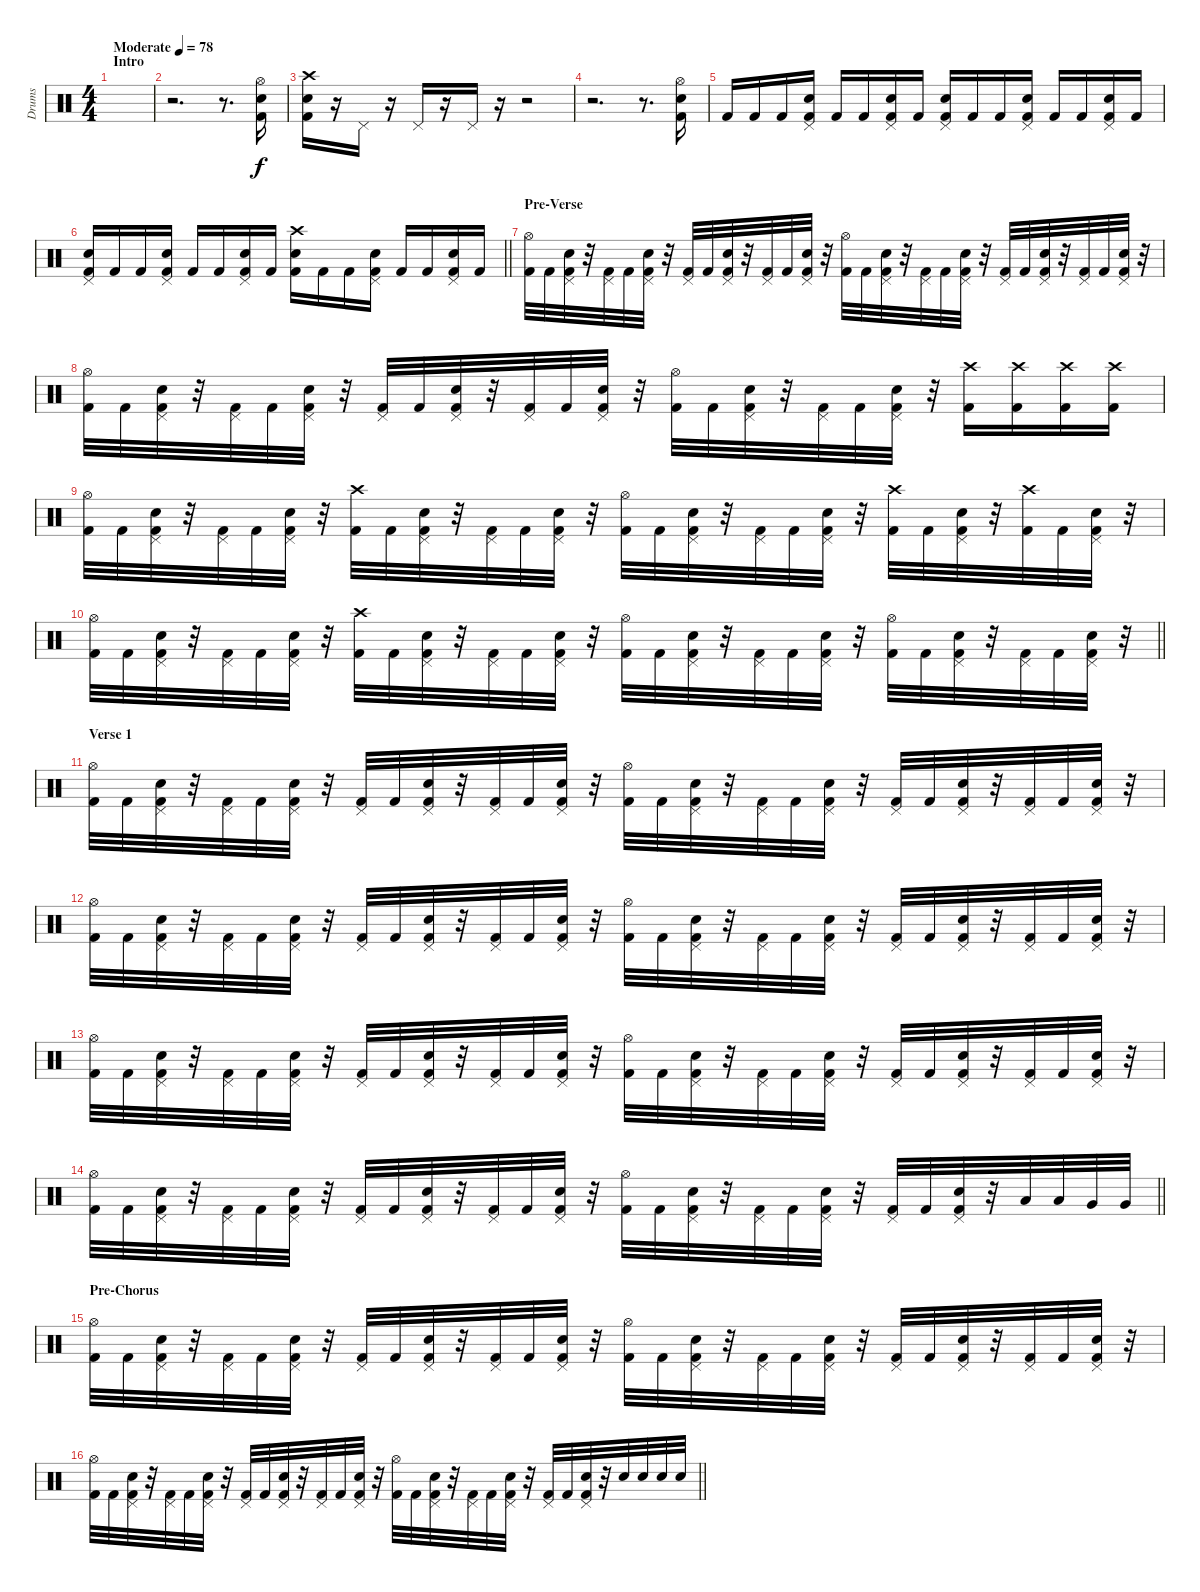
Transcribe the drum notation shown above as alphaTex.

\track ("Drums" "Drums") {instrument percussion}
\staff {score}
\articulation defaults
\ts (4 4)
\section ("" "Intro")
\tempo (78 "Moderate")
\clef neutral
\ks c
|
r.2{d} r.8{d} ("Hi-Hat (open)" "Snare (hit) 2" "Kick (hit) 2").16 |
("Crash high (hit)" "Snare (hit) 2" "Kick (hit) 2").16 r.16 "Pedal Hi-Hat (hit)".16 r.16 "Pedal Hi-Hat (hit)".16 r.16 "Pedal Hi-Hat (hit)".16 r.16 r.2 |
r.2{d} r.8{d} ("Hi-Hat (open)" "Snare (hit) 2" "Kick (hit) 2").16 |
"Kick (hit) 2".16 "Kick (hit) 2".16 "Kick (hit) 2".16 ("Pedal Hi-Hat (hit)" "Snare (hit) 2" "Kick (hit) 2").16 "Kick (hit) 2".16 "Kick (hit) 2".16 ("Pedal Hi-Hat (hit)" "Snare (hit) 2" "Kick (hit) 2").16 "Kick (hit) 2".16 ("Pedal Hi-Hat (hit)" "Snare (hit) 2" "Kick (hit) 2").16 "Kick (hit) 2".16 "Kick (hit) 2".16 ("Pedal Hi-Hat (hit)" "Snare (hit) 2" "Kick (hit) 2").16 "Kick (hit) 2".16 "Kick (hit) 2".16 ("Pedal Hi-Hat (hit)" "Snare (hit) 2" "Kick (hit) 2").16 "Kick (hit) 2".16 |
\barLineRight lightlight
("Pedal Hi-Hat (hit)" "Snare (hit) 2" "Kick (hit) 2").16 "Kick (hit) 2".16 "Kick (hit) 2".16 ("Pedal Hi-Hat (hit)" "Snare (hit) 2" "Kick (hit) 2").16 "Kick (hit) 2".16 "Kick (hit) 2".16 ("Pedal Hi-Hat (hit)" "Snare (hit) 2" "Kick (hit) 2").16 "Kick (hit) 2".16 ("Crash high (hit)" "Snare (hit) 2" "Kick (hit) 2").16 "Kick (hit) 2".16 "Kick (hit) 2".16 ("Pedal Hi-Hat (hit)" "Snare (hit) 2" "Kick (hit) 2").16 "Kick (hit) 2".16 "Kick (hit) 2".16 ("Pedal Hi-Hat (hit)" "Snare (hit) 2" "Kick (hit) 2").16 "Kick (hit) 2".16 |
\section ("" "Pre-Verse")
("Hi-Hat (open)" "Kick (hit) 2").32 "Kick (hit) 2".32 ("Pedal Hi-Hat (hit)" "Snare (hit) 2" "Kick (hit) 2").32 r.32 ("Pedal Hi-Hat (hit)" "Kick (hit) 2").32 "Kick (hit) 2".32 ("Pedal Hi-Hat (hit)" "Snare (hit) 2" "Kick (hit) 2").32 r.32 ("Pedal Hi-Hat (hit)" "Kick (hit) 2").32 "Kick (hit) 2".32 ("Pedal Hi-Hat (hit)" "Snare (hit) 2" "Kick (hit) 2").32 r.32 ("Pedal Hi-Hat (hit)" "Kick (hit) 2").32 "Kick (hit) 2".32 ("Pedal Hi-Hat (hit)" "Snare (hit) 2" "Kick (hit) 2").32 r.32 ("Hi-Hat (open)" "Kick (hit) 2").32 "Kick (hit) 2".32 ("Pedal Hi-Hat (hit)" "Snare (hit) 2" "Kick (hit) 2").32 r.32 ("Pedal Hi-Hat (hit)" "Kick (hit) 2").32 "Kick (hit) 2".32 ("Pedal Hi-Hat (hit)" "Snare (hit) 2" "Kick (hit) 2").32 r.32 ("Pedal Hi-Hat (hit)" "Kick (hit) 2").32 "Kick (hit) 2".32 ("Pedal Hi-Hat (hit)" "Snare (hit) 2" "Kick (hit) 2").32 r.32 ("Pedal Hi-Hat (hit)" "Kick (hit) 2").32 "Kick (hit) 2".32 ("Pedal Hi-Hat (hit)" "Snare (hit) 2" "Kick (hit) 2").32 r.32 |
("Hi-Hat (open)" "Kick (hit) 2").32 "Kick (hit) 2".32 ("Pedal Hi-Hat (hit)" "Snare (hit) 2" "Kick (hit) 2").32 r.32 ("Pedal Hi-Hat (hit)" "Kick (hit) 2").32 "Kick (hit) 2".32 ("Pedal Hi-Hat (hit)" "Snare (hit) 2" "Kick (hit) 2").32 r.32 ("Pedal Hi-Hat (hit)" "Kick (hit) 2").32 "Kick (hit) 2".32 ("Pedal Hi-Hat (hit)" "Snare (hit) 2" "Kick (hit) 2").32 r.32 ("Pedal Hi-Hat (hit)" "Kick (hit) 2").32 "Kick (hit) 2".32 ("Pedal Hi-Hat (hit)" "Snare (hit) 2" "Kick (hit) 2").32 r.32 ("Hi-Hat (open)" "Kick (hit) 2").32 "Kick (hit) 2".32 ("Pedal Hi-Hat (hit)" "Snare (hit) 2" "Kick (hit) 2").32 r.32 ("Pedal Hi-Hat (hit)" "Kick (hit) 2").32 "Kick (hit) 2".32 ("Pedal Hi-Hat (hit)" "Snare (hit) 2" "Kick (hit) 2").32 r.32 ("Crash high (hit)" "Kick (hit) 2").16 ("Crash high (hit)" "Kick (hit) 2").16 ("Crash high (hit)" "Kick (hit) 2").16 ("Crash high (hit)" "Kick (hit) 2").16 |
("Hi-Hat (open)" "Kick (hit) 2").32 "Kick (hit) 2".32 ("Pedal Hi-Hat (hit)" "Snare (hit) 2" "Kick (hit) 2").32 r.32 ("Pedal Hi-Hat (hit)" "Kick (hit) 2").32 "Kick (hit) 2".32 ("Pedal Hi-Hat (hit)" "Snare (hit) 2" "Kick (hit) 2").32 r.32 ("Crash high (hit)" "Kick (hit) 2").32 "Kick (hit) 2".32 ("Pedal Hi-Hat (hit)" "Snare (hit) 2" "Kick (hit) 2").32 r.32 ("Pedal Hi-Hat (hit)" "Kick (hit) 2").32 "Kick (hit) 2".32 ("Pedal Hi-Hat (hit)" "Snare (hit) 2" "Kick (hit) 2").32 r.32 ("Hi-Hat (open)" "Kick (hit) 2").32 "Kick (hit) 2".32 ("Pedal Hi-Hat (hit)" "Snare (hit) 2" "Kick (hit) 2").32 r.32 ("Pedal Hi-Hat (hit)" "Kick (hit) 2").32 "Kick (hit) 2".32 ("Pedal Hi-Hat (hit)" "Snare (hit) 2" "Kick (hit) 2").32 r.32 ("Crash high (hit)" "Kick (hit) 2").32 "Kick (hit) 2".32 ("Pedal Hi-Hat (hit)" "Snare (hit) 2" "Kick (hit) 2").32 r.32 ("Crash high (hit)" "Kick (hit) 2").32 "Kick (hit) 2".32 ("Pedal Hi-Hat (hit)" "Snare (hit) 2" "Kick (hit) 2").32 r.32 |
\barLineRight lightlight
("Hi-Hat (open)" "Kick (hit) 2").32 "Kick (hit) 2".32 ("Pedal Hi-Hat (hit)" "Snare (hit) 2" "Kick (hit) 2").32 r.32 ("Pedal Hi-Hat (hit)" "Kick (hit) 2").32 "Kick (hit) 2".32 ("Pedal Hi-Hat (hit)" "Snare (hit) 2" "Kick (hit) 2").32 r.32 ("Crash high (hit)" "Kick (hit) 2").32 "Kick (hit) 2".32 ("Pedal Hi-Hat (hit)" "Snare (hit) 2" "Kick (hit) 2").32 r.32 ("Pedal Hi-Hat (hit)" "Kick (hit) 2").32 "Kick (hit) 2".32 ("Pedal Hi-Hat (hit)" "Snare (hit) 2" "Kick (hit) 2").32 r.32 ("Hi-Hat (open)" "Kick (hit) 2").32 "Kick (hit) 2".32 ("Pedal Hi-Hat (hit)" "Snare (hit) 2" "Kick (hit) 2").32 r.32 ("Pedal Hi-Hat (hit)" "Kick (hit) 2").32 "Kick (hit) 2".32 ("Pedal Hi-Hat (hit)" "Snare (hit) 2" "Kick (hit) 2").32 r.32 ("Hi-Hat (open)" "Kick (hit) 2").32 "Kick (hit) 2".32 ("Pedal Hi-Hat (hit)" "Snare (hit) 2" "Kick (hit) 2").32 r.32 ("Pedal Hi-Hat (hit)" "Kick (hit) 2").32 "Kick (hit) 2".32 ("Pedal Hi-Hat (hit)" "Snare (hit) 2" "Kick (hit) 2").32 r.32 |
\section ("" "Verse 1")
("Hi-Hat (open)" "Kick (hit) 2").32 "Kick (hit) 2".32 ("Pedal Hi-Hat (hit)" "Snare (hit) 2" "Kick (hit) 2").32 r.32 ("Pedal Hi-Hat (hit)" "Kick (hit) 2").32 "Kick (hit) 2".32 ("Pedal Hi-Hat (hit)" "Snare (hit) 2" "Kick (hit) 2").32 r.32 ("Pedal Hi-Hat (hit)" "Kick (hit) 2").32 "Kick (hit) 2".32 ("Pedal Hi-Hat (hit)" "Snare (hit) 2" "Kick (hit) 2").32 r.32 ("Pedal Hi-Hat (hit)" "Kick (hit) 2").32 "Kick (hit) 2".32 ("Pedal Hi-Hat (hit)" "Snare (hit) 2" "Kick (hit) 2").32 r.32 ("Hi-Hat (open)" "Kick (hit) 2").32 "Kick (hit) 2".32 ("Pedal Hi-Hat (hit)" "Snare (hit) 2" "Kick (hit) 2").32 r.32 ("Pedal Hi-Hat (hit)" "Kick (hit) 2").32 "Kick (hit) 2".32 ("Pedal Hi-Hat (hit)" "Snare (hit) 2" "Kick (hit) 2").32 r.32 ("Pedal Hi-Hat (hit)" "Kick (hit) 2").32 "Kick (hit) 2".32 ("Pedal Hi-Hat (hit)" "Snare (hit) 2" "Kick (hit) 2").32 r.32 ("Pedal Hi-Hat (hit)" "Kick (hit) 2").32 "Kick (hit) 2".32 ("Pedal Hi-Hat (hit)" "Snare (hit) 2" "Kick (hit) 2").32 r.32 |
("Hi-Hat (open)" "Kick (hit) 2").32 "Kick (hit) 2".32 ("Pedal Hi-Hat (hit)" "Snare (hit) 2" "Kick (hit) 2").32 r.32 ("Pedal Hi-Hat (hit)" "Kick (hit) 2").32 "Kick (hit) 2".32 ("Pedal Hi-Hat (hit)" "Snare (hit) 2" "Kick (hit) 2").32 r.32 ("Pedal Hi-Hat (hit)" "Kick (hit) 2").32 "Kick (hit) 2".32 ("Pedal Hi-Hat (hit)" "Snare (hit) 2" "Kick (hit) 2").32 r.32 ("Pedal Hi-Hat (hit)" "Kick (hit) 2").32 "Kick (hit) 2".32 ("Pedal Hi-Hat (hit)" "Snare (hit) 2" "Kick (hit) 2").32 r.32 ("Hi-Hat (open)" "Kick (hit) 2").32 "Kick (hit) 2".32 ("Pedal Hi-Hat (hit)" "Snare (hit) 2" "Kick (hit) 2").32 r.32 ("Pedal Hi-Hat (hit)" "Kick (hit) 2").32 "Kick (hit) 2".32 ("Pedal Hi-Hat (hit)" "Snare (hit) 2" "Kick (hit) 2").32 r.32 ("Pedal Hi-Hat (hit)" "Kick (hit) 2").32 "Kick (hit) 2".32 ("Pedal Hi-Hat (hit)" "Snare (hit) 2" "Kick (hit) 2").32 r.32 ("Pedal Hi-Hat (hit)" "Kick (hit) 2").32 "Kick (hit) 2".32 ("Pedal Hi-Hat (hit)" "Snare (hit) 2" "Kick (hit) 2").32 r.32 |
("Hi-Hat (open)" "Kick (hit) 2").32 "Kick (hit) 2".32 ("Pedal Hi-Hat (hit)" "Snare (hit) 2" "Kick (hit) 2").32 r.32 ("Pedal Hi-Hat (hit)" "Kick (hit) 2").32 "Kick (hit) 2".32 ("Pedal Hi-Hat (hit)" "Snare (hit) 2" "Kick (hit) 2").32 r.32 ("Pedal Hi-Hat (hit)" "Kick (hit) 2").32 "Kick (hit) 2".32 ("Pedal Hi-Hat (hit)" "Snare (hit) 2" "Kick (hit) 2").32 r.32 ("Pedal Hi-Hat (hit)" "Kick (hit) 2").32 "Kick (hit) 2".32 ("Pedal Hi-Hat (hit)" "Snare (hit) 2" "Kick (hit) 2").32 r.32 ("Hi-Hat (open)" "Kick (hit) 2").32 "Kick (hit) 2".32 ("Pedal Hi-Hat (hit)" "Snare (hit) 2" "Kick (hit) 2").32 r.32 ("Pedal Hi-Hat (hit)" "Kick (hit) 2").32 "Kick (hit) 2".32 ("Pedal Hi-Hat (hit)" "Snare (hit) 2" "Kick (hit) 2").32 r.32 ("Pedal Hi-Hat (hit)" "Kick (hit) 2").32 "Kick (hit) 2".32 ("Pedal Hi-Hat (hit)" "Snare (hit) 2" "Kick (hit) 2").32 r.32 ("Pedal Hi-Hat (hit)" "Kick (hit) 2").32 "Kick (hit) 2".32 ("Pedal Hi-Hat (hit)" "Snare (hit) 2" "Kick (hit) 2").32 r.32 |
\barLineRight lightlight
("Hi-Hat (open)" "Kick (hit) 2").32 "Kick (hit) 2".32 ("Pedal Hi-Hat (hit)" "Snare (hit) 2" "Kick (hit) 2").32 r.32 ("Pedal Hi-Hat (hit)" "Kick (hit) 2").32 "Kick (hit) 2".32 ("Pedal Hi-Hat (hit)" "Snare (hit) 2" "Kick (hit) 2").32 r.32 ("Pedal Hi-Hat (hit)" "Kick (hit) 2").32 "Kick (hit) 2".32 ("Pedal Hi-Hat (hit)" "Snare (hit) 2" "Kick (hit) 2").32 r.32 ("Pedal Hi-Hat (hit)" "Kick (hit) 2").32 "Kick (hit) 2".32 ("Pedal Hi-Hat (hit)" "Snare (hit) 2" "Kick (hit) 2").32 r.32 ("Hi-Hat (open)" "Kick (hit) 2").32 "Kick (hit) 2".32 ("Pedal Hi-Hat (hit)" "Snare (hit) 2" "Kick (hit) 2").32 r.32 ("Pedal Hi-Hat (hit)" "Kick (hit) 2").32 "Kick (hit) 2".32 ("Pedal Hi-Hat (hit)" "Snare (hit) 2" "Kick (hit) 2").32 r.32 ("Pedal Hi-Hat (hit)" "Kick (hit) 2").32 "Kick (hit) 2".32 ("Pedal Hi-Hat (hit)" "Snare (hit) 2" "Kick (hit) 2").32 r.32 "Low Tom (hit)".32 "Low Tom (hit)".32 "Very Low Tom (hit)".32 "Very Low Tom (hit)".32 |
\section ("" "Pre-Chorus")
("Hi-Hat (open)" "Kick (hit) 2").32 "Kick (hit) 2".32 ("Pedal Hi-Hat (hit)" "Snare (hit) 2" "Kick (hit) 2").32 r.32 ("Pedal Hi-Hat (hit)" "Kick (hit) 2").32 "Kick (hit) 2".32 ("Pedal Hi-Hat (hit)" "Snare (hit) 2" "Kick (hit) 2").32 r.32 ("Pedal Hi-Hat (hit)" "Kick (hit) 2").32 "Kick (hit) 2".32 ("Pedal Hi-Hat (hit)" "Snare (hit) 2" "Kick (hit) 2").32 r.32 ("Pedal Hi-Hat (hit)" "Kick (hit) 2").32 "Kick (hit) 2".32 ("Pedal Hi-Hat (hit)" "Snare (hit) 2" "Kick (hit) 2").32 r.32 ("Hi-Hat (open)" "Kick (hit) 2").32 "Kick (hit) 2".32 ("Pedal Hi-Hat (hit)" "Snare (hit) 2" "Kick (hit) 2").32 r.32 ("Pedal Hi-Hat (hit)" "Kick (hit) 2").32 "Kick (hit) 2".32 ("Pedal Hi-Hat (hit)" "Snare (hit) 2" "Kick (hit) 2").32 r.32 ("Pedal Hi-Hat (hit)" "Kick (hit) 2").32 "Kick (hit) 2".32 ("Pedal Hi-Hat (hit)" "Snare (hit) 2" "Kick (hit) 2").32 r.32 ("Pedal Hi-Hat (hit)" "Kick (hit) 2").32 "Kick (hit) 2".32 ("Pedal Hi-Hat (hit)" "Snare (hit) 2" "Kick (hit) 2").32 r.32 |
\barLineRight lightlight
("Hi-Hat (open)" "Kick (hit) 2").32 "Kick (hit) 2".32 ("Pedal Hi-Hat (hit)" "Snare (hit) 2" "Kick (hit) 2").32 r.32 ("Pedal Hi-Hat (hit)" "Kick (hit) 2").32 "Kick (hit) 2".32 ("Pedal Hi-Hat (hit)" "Snare (hit) 2" "Kick (hit) 2").32 r.32 ("Pedal Hi-Hat (hit)" "Kick (hit) 2").32 "Kick (hit) 2".32 ("Pedal Hi-Hat (hit)" "Snare (hit) 2" "Kick (hit) 2").32 r.32 ("Pedal Hi-Hat (hit)" "Kick (hit) 2").32 "Kick (hit) 2".32 ("Pedal Hi-Hat (hit)" "Snare (hit) 2" "Kick (hit) 2").32 r.32 ("Hi-Hat (open)" "Kick (hit) 2").32 "Kick (hit) 2".32 ("Pedal Hi-Hat (hit)" "Snare (hit) 2" "Kick (hit) 2").32 r.32 ("Pedal Hi-Hat (hit)" "Kick (hit) 2").32 "Kick (hit) 2".32 ("Pedal Hi-Hat (hit)" "Snare (hit) 2" "Kick (hit) 2").32 r.32 ("Pedal Hi-Hat (hit)" "Kick (hit) 2").32 "Kick (hit) 2".32 ("Pedal Hi-Hat (hit)" "Snare (hit) 2" "Kick (hit) 2").32 r.32 "Snare (hit) 2".32 "Snare (hit) 2".32 "Snare (hit) 2".32 "Snare (hit) 2".32
